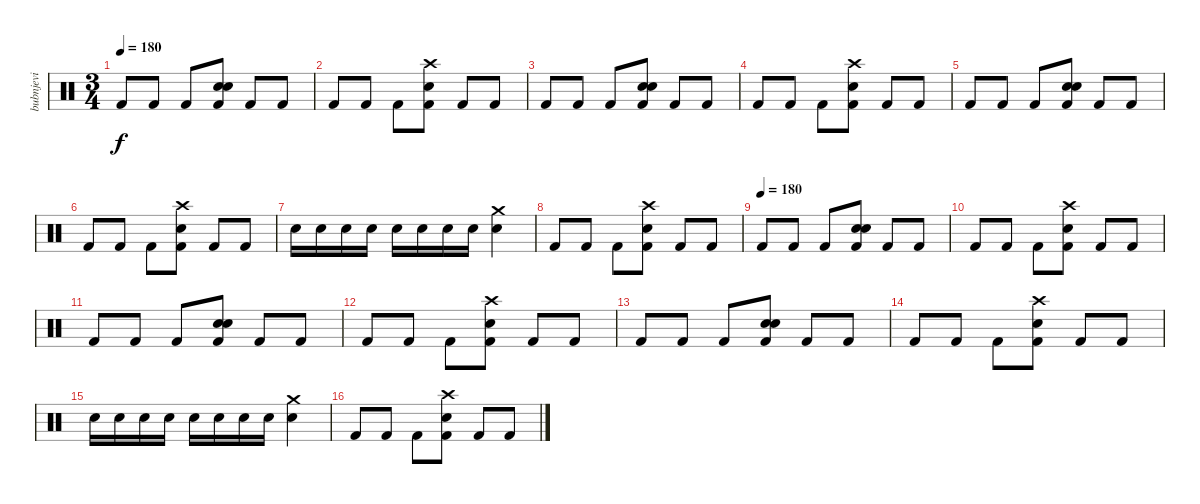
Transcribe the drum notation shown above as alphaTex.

\track ("bubnjevi" "bubnjevi") {instrument percussion}
\staff {score}
\articulation defaults
\ts (3 4)
\tempo 160
\tempo 180
\clef neutral
\ks c "Kick (hit) 2".8{dy f} "Kick (hit) 2".8 "Kick (hit) 2".8
("Electric Snare (hit)" "Electric Snare (hit)" "Kick (hit) 2").8 "Kick (hit) 2".8 "Kick (hit) 2".8 |
"Kick (hit) 2".8 "Kick (hit) 2".8 "Kick (hit) 2".8 ("Crash high (hit)" "Electric Snare (hit)" "Kick (hit) 2").8 "Kick (hit) 2".8 "Kick (hit) 2".8 |
"Kick (hit) 2".8 "Kick (hit) 2".8 "Kick (hit) 2".8 ("Electric Snare (hit)" "Electric Snare (hit)" "Kick (hit) 2").8 "Kick (hit) 2".8 "Kick (hit) 2".8 |
"Kick (hit) 2".8 "Kick (hit) 2".8 "Kick (hit) 2".8 ("Crash high (hit)" "Electric Snare (hit)" "Kick (hit) 2").8 "Kick (hit) 2".8 "Kick (hit) 2".8 |
"Kick (hit) 2".8 "Kick (hit) 2".8 "Kick (hit) 2".8 ("Electric Snare (hit)" "Electric Snare (hit)" "Kick (hit) 2").8 "Kick (hit) 2".8 "Kick (hit) 2".8 |
"Kick (hit) 2".8 "Kick (hit) 2".8 "Kick (hit) 2".8 ("Crash high (hit)" "Electric Snare (hit)" "Kick (hit) 2").8 "Kick (hit) 2".8 "Kick (hit) 2".8 |
"Snare (hit) 2".16 "Snare (hit) 2".16 "Snare (hit) 2".16 "Snare (hit) 2".16 "Snare (hit) 2".16 "Snare (hit) 2".16 "Snare (hit) 2".16 "Snare (hit) 2".16 ("Crash medium (hit)" "Snare (hit) 2").4 |
"Kick (hit) 2".8 "Kick (hit) 2".8 "Kick (hit) 2".8 ("Crash high (hit)" "Electric Snare (hit)" "Kick (hit) 2").8 "Kick (hit) 2".8 "Kick (hit) 2".8 |
\tempo 160
\tempo (180)
"Kick (hit) 2".8 "Kick (hit) 2".8 "Kick (hit) 2".8 ("Electric Snare (hit)" "Electric Snare (hit)" "Kick (hit) 2").8 "Kick (hit) 2".8 "Kick (hit) 2".8 |
"Kick (hit) 2".8 "Kick (hit) 2".8 "Kick (hit) 2".8 ("Crash high (hit)" "Electric Snare (hit)" "Kick (hit) 2").8 "Kick (hit) 2".8 "Kick (hit) 2".8 |
"Kick (hit) 2".8 "Kick (hit) 2".8 "Kick (hit) 2".8 ("Electric Snare (hit)" "Electric Snare (hit)" "Kick (hit) 2").8 "Kick (hit) 2".8 "Kick (hit) 2".8 |
"Kick (hit) 2".8 "Kick (hit) 2".8 "Kick (hit) 2".8 ("Crash high (hit)" "Electric Snare (hit)" "Kick (hit) 2").8 "Kick (hit) 2".8 "Kick (hit) 2".8 |
"Kick (hit) 2".8 "Kick (hit) 2".8 "Kick (hit) 2".8 ("Electric Snare (hit)" "Electric Snare (hit)" "Kick (hit) 2").8 "Kick (hit) 2".8 "Kick (hit) 2".8 |
"Kick (hit) 2".8 "Kick (hit) 2".8 "Kick (hit) 2".8 ("Crash high (hit)" "Electric Snare (hit)" "Kick (hit) 2").8 "Kick (hit) 2".8 "Kick (hit) 2".8 |
"Snare (hit) 2".16 "Snare (hit) 2".16 "Snare (hit) 2".16 "Snare (hit) 2".16 "Snare (hit) 2".16 "Snare (hit) 2".16 "Snare (hit) 2".16 "Snare (hit) 2".16 ("Crash medium (hit)" "Snare (hit) 2").4 |
"Kick (hit) 2".8 "Kick (hit) 2".8 "Kick (hit) 2".8 ("Crash high (hit)" "Electric Snare (hit)" "Kick (hit) 2").8 "Kick (hit) 2".8 "Kick (hit) 2".8
